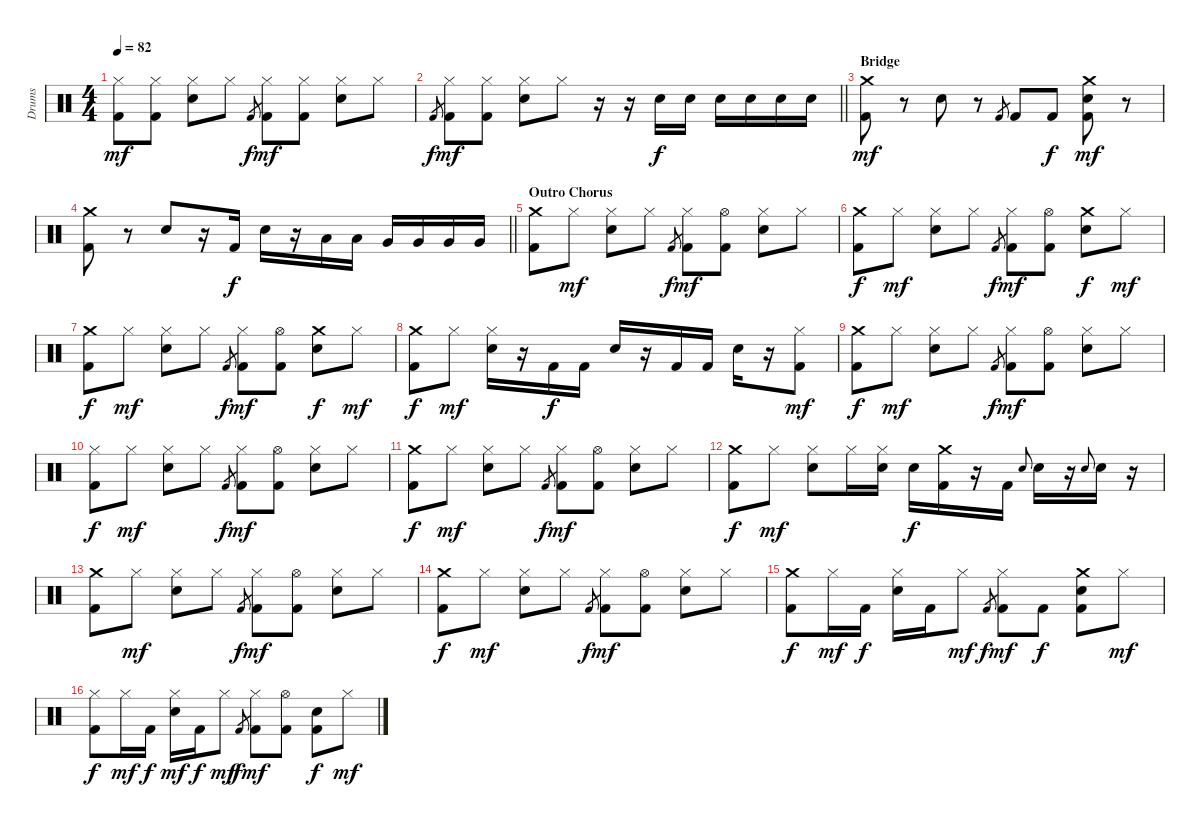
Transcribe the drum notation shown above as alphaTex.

\track ("Drums" "Drums") {instrument percussion}
\staff {score}
\articulation defaults
\ts (4 4)
\tempo 82
\clef neutral
\ks c
("Hi-Hat (closed)" "Kick (hit) 2").8{dy mf} ("Hi-Hat (closed)" "Kick (hit) 2").8 ("Hi-Hat (closed)" "Snare (hit) 2").8 "Hi-Hat (closed)".8 "Kick (hit) 2".8{gr dy f} ("Hi-Hat (closed)" "Kick (hit) 2").8{dy mf} ("Hi-Hat (closed)" "Kick (hit) 2").8 ("Hi-Hat (closed)" "Snare (hit) 2").8 "Hi-Hat (closed)".8 |
\barLineRight lightlight "Kick (hit) 2".8{gr dy f}
("Hi-Hat (closed)" "Kick (hit) 2").8{dy mf} ("Hi-Hat (closed)" "Kick (hit) 2").8 ("Hi-Hat (closed)" "Snare (hit) 2").8 "Hi-Hat (closed)".8 r.16 r.16 "Snare (hit) 2".16{dy f} "Snare (hit) 2".16 "Snare (hit) 2".16 "Snare (hit) 2".16 "Snare (hit) 2".16 "Snare (hit) 2".16 |
\section ("" "Bridge")
("Crash medium (hit)" "Kick (hit) 2").8{dy mf} r.8 "Snare (hit) 2".8 r.8 "Kick (hit) 2".8{gr} "Kick (hit) 2".8 "Kick (hit) 2".8{dy f} ("Crash medium (hit)" "Snare (hit) 2" "Kick (hit) 2").8{dy mf} r.8 |
\barLineRight lightlight
("Crash medium (hit)" "Kick (hit) 2").8 r.8 "Snare (hit) 2".8 r.16 "Kick (hit) 2".16{dy f} "Snare (hit) 2".16 r.16 "Low Tom (hit)".16 "Low Tom (hit)".16 "Very Low Tom (hit)".16 "Very Low Tom (hit)".16 "Very Low Tom (hit)".16 "Very Low Tom (hit)".16 |
\section ("" "Outro Chorus")
("Crash medium (hit)" "Kick (hit) 2").8 "Hi-Hat (closed)".8{dy mf} ("Hi-Hat (closed)" "Snare (hit) 2").8 "Hi-Hat (closed)".8 "Kick (hit) 2".8{gr dy f} ("Hi-Hat (closed)" "Kick (hit) 2").8{dy mf} ("Hi-Hat (open)" "Kick (hit) 2").8 ("Hi-Hat (closed)" "Snare (hit) 2").8 "Hi-Hat (closed)".8 |
("Crash medium (hit)" "Kick (hit) 2").8{dy f} "Hi-Hat (closed)".8{dy mf} ("Hi-Hat (closed)" "Snare (hit) 2").8 "Hi-Hat (closed)".8 "Kick (hit) 2".8{gr dy f} ("Hi-Hat (closed)" "Kick (hit) 2").8{dy mf} ("Hi-Hat (open)" "Kick (hit) 2").8 ("Crash medium (hit)" "Snare (hit) 2").8{dy f} "Hi-Hat (closed)".8{dy mf} |
("Crash medium (hit)" "Kick (hit) 2").8{dy f} "Hi-Hat (closed)".8{dy mf} ("Hi-Hat (closed)" "Snare (hit) 2").8 "Hi-Hat (closed)".8 "Kick (hit) 2".8{gr dy f} ("Hi-Hat (closed)" "Kick (hit) 2").8{dy mf} ("Hi-Hat (open)" "Kick (hit) 2").8 ("Crash medium (hit)" "Snare (hit) 2").8{dy f} "Hi-Hat (closed)".8{dy mf} |
("Crash medium (hit)" "Kick (hit) 2").8{dy f} "Hi-Hat (closed)".8{dy mf} ("Hi-Hat (closed)" "Snare (hit) 2").16 r.16 "Kick (hit) 2".16{dy f} "Kick (hit) 2".16 "Snare (hit) 2".16 r.16 "Kick (hit) 2".16 "Kick (hit) 2".16 "Snare (hit) 2".16 r.16 ("Hi-Hat (closed)" "Kick (hit) 2").8{dy mf} |
("Crash medium (hit)" "Kick (hit) 2").8{dy f} "Hi-Hat (closed)".8{dy mf} ("Hi-Hat (closed)" "Snare (hit) 2").8 "Hi-Hat (closed)".8 "Kick (hit) 2".8{gr dy f} ("Hi-Hat (closed)" "Kick (hit) 2").8{dy mf} ("Hi-Hat (open)" "Kick (hit) 2").8 ("Hi-Hat (closed)" "Snare (hit) 2").8 "Hi-Hat (closed)".8 |
("Hi-Hat (closed)" "Kick (hit) 2").8{dy f} "Hi-Hat (closed)".8{dy mf} ("Hi-Hat (closed)" "Snare (hit) 2").8 "Hi-Hat (closed)".8 "Kick (hit) 2".8{gr dy f} ("Hi-Hat (closed)" "Kick (hit) 2").8{dy mf} ("Hi-Hat (open)" "Kick (hit) 2").8 ("Hi-Hat (closed)" "Snare (hit) 2").8 "Hi-Hat (closed)".8 |
("Crash medium (hit)" "Kick (hit) 2").8{dy f} "Hi-Hat (closed)".8{dy mf} ("Hi-Hat (closed)" "Snare (hit) 2").8 "Hi-Hat (closed)".8 "Kick (hit) 2".8{gr dy f} ("Hi-Hat (closed)" "Kick (hit) 2").8{dy mf} ("Hi-Hat (open)" "Kick (hit) 2").8 ("Hi-Hat (closed)" "Snare (hit) 2").8 "Hi-Hat (closed)".8 |
("Crash medium (hit)" "Kick (hit) 2").8{dy f} "Hi-Hat (closed)".8{dy mf} ("Hi-Hat (closed)" "Snare (hit) 2").8 "Hi-Hat (closed)".16 ("Hi-Hat (closed)" "Snare (hit) 2").16 "Snare (hit) 2".16{dy f} ("Crash medium (hit)" "Kick (hit) 2").16 r.16 "Kick (hit) 2".16 "Snare (hit) 2".8{gr onbeat} "Snare (hit) 2".16 r.16 "Snare (hit) 2".8{gr onbeat} "Snare (hit) 2".16 r.16 |
("Crash medium (hit)" "Kick (hit) 2").8 "Hi-Hat (closed)".8{dy mf} ("Hi-Hat (closed)" "Snare (hit) 2").8 "Hi-Hat (closed)".8 "Kick (hit) 2".8{gr dy f} ("Hi-Hat (closed)" "Kick (hit) 2").8{dy mf} ("Hi-Hat (open)" "Kick (hit) 2").8 ("Hi-Hat (closed)" "Snare (hit) 2").8 "Hi-Hat (closed)".8 |
("Crash medium (hit)" "Kick (hit) 2").8{dy f} "Hi-Hat (closed)".8{dy mf} ("Hi-Hat (closed)" "Snare (hit) 2").8 "Hi-Hat (closed)".8 "Kick (hit) 2".8{gr dy f} ("Hi-Hat (closed)" "Kick (hit) 2").8{dy mf} ("Hi-Hat (open)" "Kick (hit) 2").8 ("Hi-Hat (closed)" "Snare (hit) 2").8 "Hi-Hat (closed)".8 |
("Crash medium (hit)" "Kick (hit) 2").8{dy f} "Hi-Hat (closed)".16{dy mf} "Kick (hit) 2".16{dy f} ("Hi-Hat (closed)" "Snare (hit) 2").16 "Kick (hit) 2".16 "Hi-Hat (closed)".8{dy mf} "Kick (hit) 2".8{gr dy f} ("Hi-Hat (closed)" "Kick (hit) 2").8{dy mf} "Kick (hit) 2".8{dy f} ("Crash medium (hit)" "Snare (hit) 2" "Kick (hit) 2").8 "Hi-Hat (closed)".8{dy mf} |
("Hi-Hat (closed)" "Kick (hit) 2").8{dy f} "Hi-Hat (closed)".16{dy mf} "Kick (hit) 2".16{dy f} ("Hi-Hat (closed)" "Snare (hit) 2").16{dy mf} "Kick (hit) 2".16{dy f} "Hi-Hat (closed)".8{dy mf} "Kick (hit) 2".8{gr dy f} ("Hi-Hat (closed)" "Kick (hit) 2").8{dy mf} ("Hi-Hat (open)" "Kick (hit) 2").8 ("Snare (hit) 2" "Kick (hit) 2").8{dy f} "Hi-Hat (closed)".8{dy mf}
